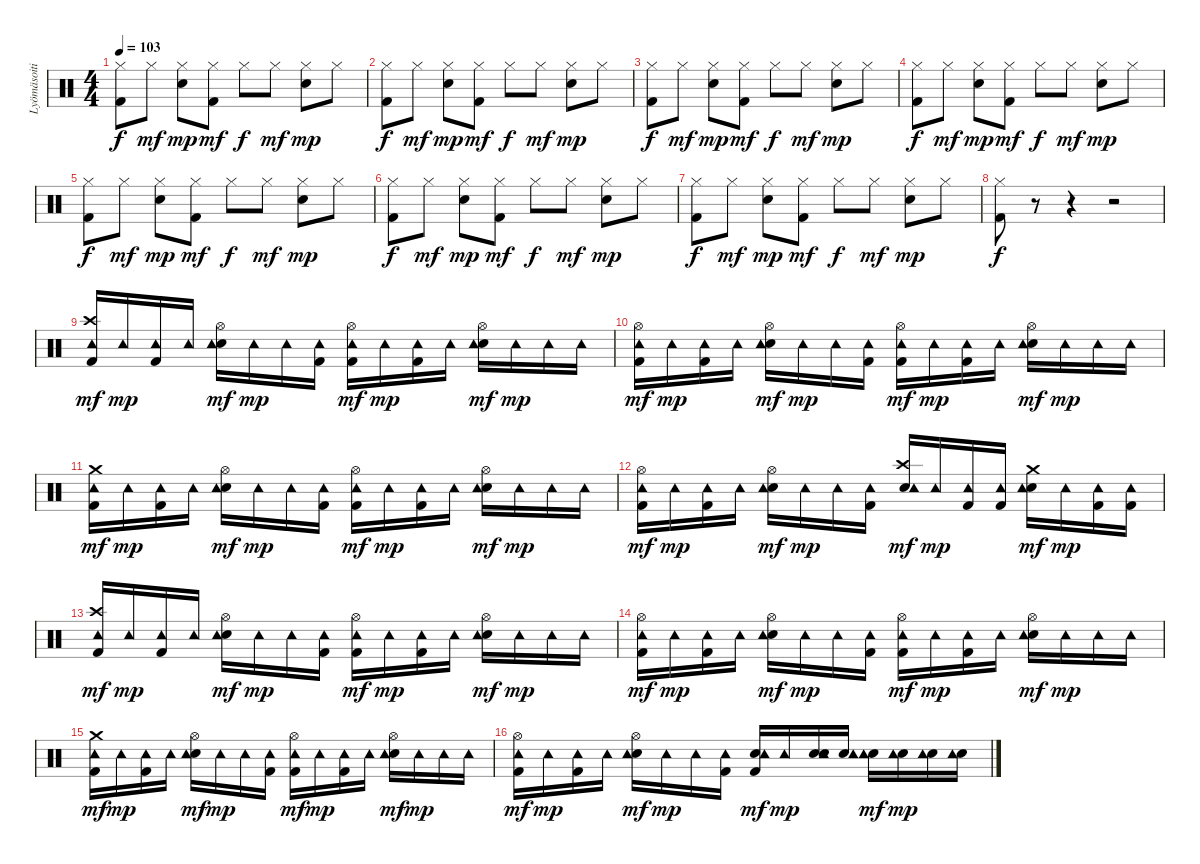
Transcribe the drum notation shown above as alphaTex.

\track ("Lyömäsoitin" "Lyömäsoiti") {instrument percussion}
\staff {score}
\articulation defaults
\ts (4 4)
\tempo 103
\clef neutral
\ks c
("Kick (hit) 2" "Hi-Hat (closed)").8{dy f} "Hi-Hat (closed)".8{dy mf} ("Hi-Hat (closed)" "Snare (hit) 2").8{dy mp} ("Kick (hit) 2" "Hi-Hat (closed)").8{dy mf} "Hi-Hat (closed)".8{dy f} "Hi-Hat (closed)".8{dy mf} ("Hi-Hat (closed)" "Snare (hit) 2").8{dy mp} "Hi-Hat (closed)".8 |
("Kick (hit) 2" "Hi-Hat (closed)").8{dy f} "Hi-Hat (closed)".8{dy mf} ("Hi-Hat (closed)" "Snare (hit) 2").8{dy mp} ("Kick (hit) 2" "Hi-Hat (closed)").8{dy mf} "Hi-Hat (closed)".8{dy f} "Hi-Hat (closed)".8{dy mf} ("Hi-Hat (closed)" "Snare (hit) 2").8{dy mp} "Hi-Hat (closed)".8 |
("Kick (hit) 2" "Hi-Hat (closed)").8{dy f} "Hi-Hat (closed)".8{dy mf} ("Hi-Hat (closed)" "Snare (hit) 2").8{dy mp} ("Kick (hit) 2" "Hi-Hat (closed)").8{dy mf} "Hi-Hat (closed)".8{dy f} "Hi-Hat (closed)".8{dy mf} ("Hi-Hat (closed)" "Snare (hit) 2").8{dy mp} "Hi-Hat (closed)".8 |
("Kick (hit) 2" "Hi-Hat (closed)").8{dy f} "Hi-Hat (closed)".8{dy mf} ("Hi-Hat (closed)" "Snare (hit) 2").8{dy mp} ("Kick (hit) 2" "Hi-Hat (closed)").8{dy mf} "Hi-Hat (closed)".8{dy f} "Hi-Hat (closed)".8{dy mf} ("Hi-Hat (closed)" "Snare (hit) 2").8{dy mp} "Hi-Hat (closed)".8 |
("Kick (hit) 2" "Hi-Hat (closed)").8{dy f} "Hi-Hat (closed)".8{dy mf} ("Hi-Hat (closed)" "Snare (hit) 2").8{dy mp} ("Kick (hit) 2" "Hi-Hat (closed)").8{dy mf} "Hi-Hat (closed)".8{dy f} "Hi-Hat (closed)".8{dy mf} ("Hi-Hat (closed)" "Snare (hit) 2").8{dy mp} "Hi-Hat (closed)".8 |
("Kick (hit) 2" "Hi-Hat (closed)").8{dy f} "Hi-Hat (closed)".8{dy mf} ("Hi-Hat (closed)" "Snare (hit) 2").8{dy mp} ("Kick (hit) 2" "Hi-Hat (closed)").8{dy mf} "Hi-Hat (closed)".8{dy f} "Hi-Hat (closed)".8{dy mf} ("Hi-Hat (closed)" "Snare (hit) 2").8{dy mp} "Hi-Hat (closed)".8 |
("Kick (hit) 2" "Hi-Hat (closed)").8{dy f} "Hi-Hat (closed)".8{dy mf} ("Hi-Hat (closed)" "Snare (hit) 2").8{dy mp} ("Kick (hit) 2" "Hi-Hat (closed)").8{dy mf} "Hi-Hat (closed)".8{dy f} "Hi-Hat (closed)".8{dy mf} ("Hi-Hat (closed)" "Snare (hit) 2").8{dy mp} "Hi-Hat (closed)".8 |
("Kick (hit) 2" "Hi-Hat (closed)").8{dy f} r.8 r.4 r.2 |
("Kick (hit) 2" "Crash high (hit)" "Tambourine (hit)").16{dy mf} "Tambourine (hit)".16{dy mp} ("Kick (hit) 2" "Tambourine (hit)").16 "Tambourine (hit)".16 ("Hi-Hat (open)" "Snare (hit) 2" "Tambourine (hit)").16{dy mf} "Tambourine (hit)".16{dy mp} "Tambourine (hit)".16 ("Kick (hit) 2" "Tambourine (hit)").16 ("Kick (hit) 2" "Hi-Hat (open)" "Tambourine (hit)").16{dy mf} "Tambourine (hit)".16{dy mp} ("Kick (hit) 2" "Tambourine (hit)").16 "Tambourine (hit)".16 ("Hi-Hat (open)" "Snare (hit) 2" "Tambourine (hit)").16{dy mf} "Tambourine (hit)".16{dy mp} "Tambourine (hit)".16 "Tambourine (hit)".16 |
("Kick (hit) 2" "Hi-Hat (open)" "Tambourine (hit)").16{dy mf} "Tambourine (hit)".16{dy mp} ("Kick (hit) 2" "Tambourine (hit)").16 "Tambourine (hit)".16 ("Hi-Hat (open)" "Snare (hit) 2" "Tambourine (hit)").16{dy mf} "Tambourine (hit)".16{dy mp} "Tambourine (hit)".16 ("Kick (hit) 2" "Tambourine (hit)").16 ("Kick (hit) 2" "Hi-Hat (open)" "Tambourine (hit)").16{dy mf} "Tambourine (hit)".16{dy mp} ("Kick (hit) 2" "Tambourine (hit)").16 "Tambourine (hit)".16 ("Hi-Hat (open)" "Snare (hit) 2" "Tambourine (hit)").16{dy mf} "Tambourine (hit)".16{dy mp} "Tambourine (hit)".16 "Tambourine (hit)".16 |
("Kick (hit) 2" "Crash medium (hit)" "Tambourine (hit)").16{dy mf} "Tambourine (hit)".16{dy mp} ("Kick (hit) 2" "Tambourine (hit)").16 "Tambourine (hit)".16 ("Hi-Hat (open)" "Snare (hit) 2" "Tambourine (hit)").16{dy mf} "Tambourine (hit)".16{dy mp} "Tambourine (hit)".16 ("Kick (hit) 2" "Tambourine (hit)").16 ("Kick (hit) 2" "Hi-Hat (open)" "Tambourine (hit)").16{dy mf} "Tambourine (hit)".16{dy mp} ("Kick (hit) 2" "Tambourine (hit)").16 "Tambourine (hit)".16 ("Hi-Hat (open)" "Snare (hit) 2" "Tambourine (hit)").16{dy mf} "Tambourine (hit)".16{dy mp} "Tambourine (hit)".16 "Tambourine (hit)".16 |
("Kick (hit) 2" "Hi-Hat (open)" "Tambourine (hit)").16{dy mf} "Tambourine (hit)".16{dy mp} ("Kick (hit) 2" "Tambourine (hit)").16 "Tambourine (hit)".16 ("Hi-Hat (open)" "Snare (hit) 2" "Tambourine (hit)").16{dy mf} "Tambourine (hit)".16{dy mp} "Tambourine (hit)".16 ("Kick (hit) 2" "Tambourine (hit)").16 ("Crash high (hit)" "Snare (hit) 2" "Tambourine (hit)").16{dy mf} "Tambourine (hit)".16{dy mp} ("Kick (hit) 2" "Tambourine (hit)").16 ("Kick (hit) 2" "Tambourine (hit)").16 ("Crash medium (hit)" "Snare (hit) 2" "Tambourine (hit)").16{dy mf} "Tambourine (hit)".16{dy mp} ("Kick (hit) 2" "Tambourine (hit)").16 ("Kick (hit) 2" "Tambourine (hit)").16 |
("Kick (hit) 2" "Crash high (hit)" "Tambourine (hit)").16{dy mf} "Tambourine (hit)".16{dy mp} ("Kick (hit) 2" "Tambourine (hit)").16 "Tambourine (hit)".16 ("Hi-Hat (open)" "Snare (hit) 2" "Tambourine (hit)").16{dy mf} "Tambourine (hit)".16{dy mp} "Tambourine (hit)".16 ("Kick (hit) 2" "Tambourine (hit)").16 ("Kick (hit) 2" "Hi-Hat (open)" "Tambourine (hit)").16{dy mf} "Tambourine (hit)".16{dy mp} ("Kick (hit) 2" "Tambourine (hit)").16 "Tambourine (hit)".16 ("Hi-Hat (open)" "Snare (hit) 2" "Tambourine (hit)").16{dy mf} "Tambourine (hit)".16{dy mp} "Tambourine (hit)".16 "Tambourine (hit)".16 |
("Kick (hit) 2" "Hi-Hat (open)" "Tambourine (hit)").16{dy mf} "Tambourine (hit)".16{dy mp} ("Kick (hit) 2" "Tambourine (hit)").16 "Tambourine (hit)".16 ("Hi-Hat (open)" "Snare (hit) 2" "Tambourine (hit)").16{dy mf} "Tambourine (hit)".16{dy mp} "Tambourine (hit)".16 ("Kick (hit) 2" "Tambourine (hit)").16 ("Kick (hit) 2" "Hi-Hat (open)" "Tambourine (hit)").16{dy mf} "Tambourine (hit)".16{dy mp} ("Kick (hit) 2" "Tambourine (hit)").16 "Tambourine (hit)".16 ("Hi-Hat (open)" "Snare (hit) 2" "Tambourine (hit)").16{dy mf} "Tambourine (hit)".16{dy mp} "Tambourine (hit)".16 "Tambourine (hit)".16 |
("Kick (hit) 2" "Crash medium (hit)" "Tambourine (hit)").16{dy mf} "Tambourine (hit)".16{dy mp} ("Kick (hit) 2" "Tambourine (hit)").16 "Tambourine (hit)".16 ("Hi-Hat (open)" "Snare (hit) 2" "Tambourine (hit)").16{dy mf} "Tambourine (hit)".16{dy mp} "Tambourine (hit)".16 ("Kick (hit) 2" "Tambourine (hit)").16 ("Kick (hit) 2" "Hi-Hat (open)" "Tambourine (hit)").16{dy mf} "Tambourine (hit)".16{dy mp} ("Kick (hit) 2" "Tambourine (hit)").16 "Tambourine (hit)".16 ("Hi-Hat (open)" "Snare (hit) 2" "Tambourine (hit)").16{dy mf} "Tambourine (hit)".16{dy mp} "Tambourine (hit)".16 "Tambourine (hit)".16 |
("Kick (hit) 2" "Hi-Hat (open)" "Tambourine (hit)").16{dy mf} "Tambourine (hit)".16{dy mp} ("Kick (hit) 2" "Tambourine (hit)").16 "Tambourine (hit)".16 ("Hi-Hat (open)" "Snare (hit) 2" "Tambourine (hit)").16{dy mf} "Tambourine (hit)".16{dy mp} "Tambourine (hit)".16 ("Kick (hit) 2" "Tambourine (hit)").16 ("Kick (hit) 2" "Snare (hit) 2" "Tambourine (hit)").16{dy mf} "Tambourine (hit)".16{dy mp} ("Snare (hit) 2" "Snare (hit) 2" "Tambourine (hit)").16 ("Snare (hit) 2" "Tambourine (hit)").16 ("Snare (hit) 2" "Tambourine (hit)").16{dy mf} ("Snare (hit) 2" "Tambourine (hit)").16{dy mp} ("Snare (hit) 2" "Tambourine (hit)").16 ("Snare (hit) 2" "Tambourine (hit)").16
